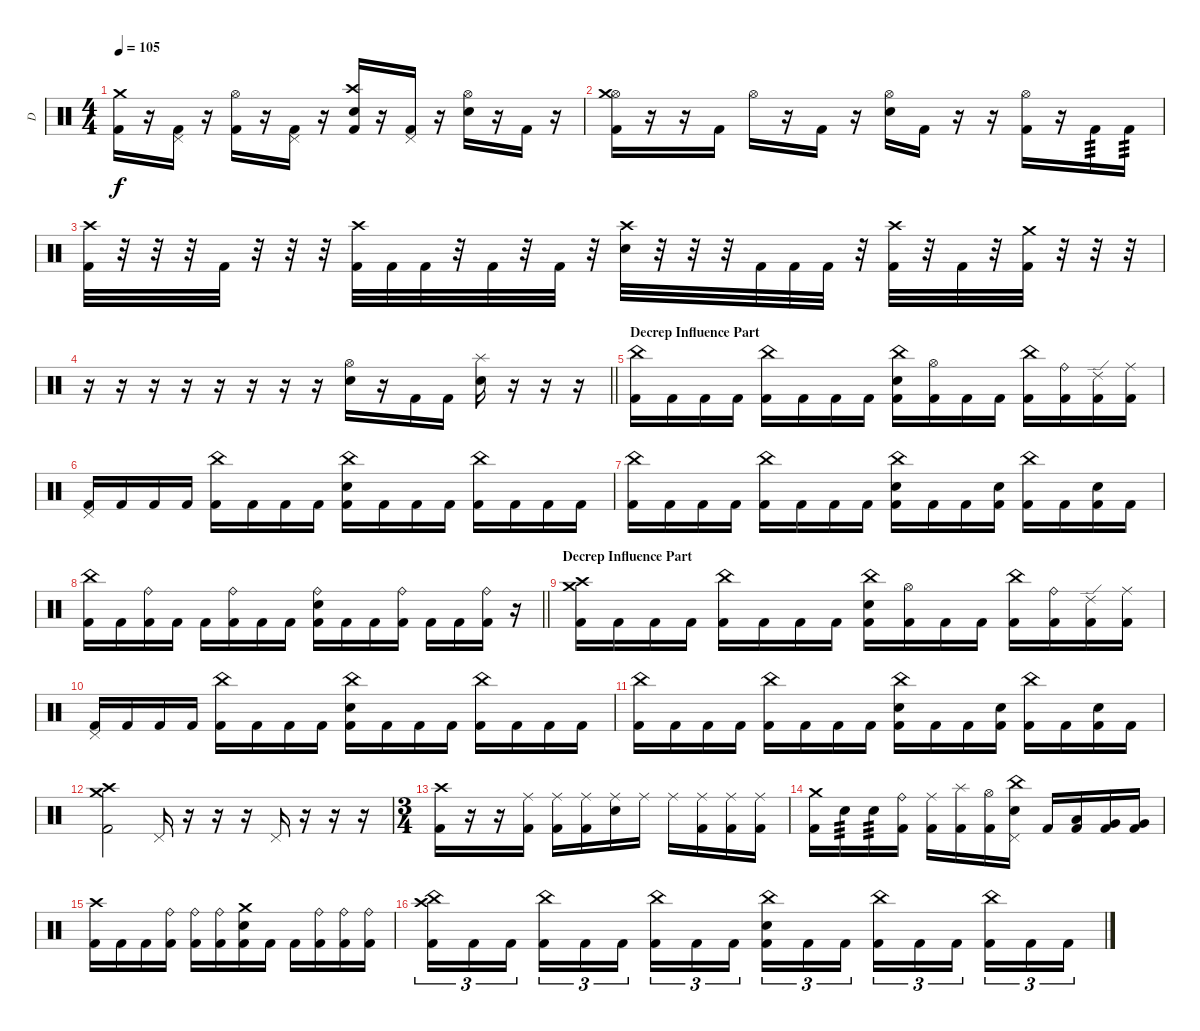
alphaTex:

\track ("D" "D") {instrument percussion}
\staff {score}
\articulation defaults
\ts (4 4)
\tempo 105
\clef neutral
\ks c
("Crash medium (hit)" "Kick (hit) 2").16{dy f} r.16 ("Pedal Hi-Hat (hit)" "Kick (hit) 2").16 r.16 ("Hi-Hat (open)" "Kick (hit) 2").16 r.16 ("Pedal Hi-Hat (hit)" "Kick (hit) 2").16 r.16 ("Crash high (hit)" "Electric Snare (hit)" "Kick (hit) 2").16 r.16 ("Pedal Hi-Hat (hit)" "Kick (hit) 2").16 r.16 ("Hi-Hat (open)" "Electric Snare (hit)").16 r.16 "Kick (hit) 2".16 r.16 |
("Hi-Hat (open)" "Crash medium (hit)" "Kick (hit) 2").16 r.16 r.16 "Kick (hit) 2".16 "Hi-Hat (open)".16 r.16 "Kick (hit) 2".16 r.16 ("Hi-Hat (open)" "Electric Snare (hit)").16 "Kick (hit) 2".16 r.16 r.16 ("Hi-Hat (open)" "Kick (hit) 2").16 r.16 "Kick (hit) 2".16{tp 3} "Kick (hit) 2".16{tp 3} |
("Kick (hit) 2" "Crash high (hit)").32 r.32 r.32 r.32 "Kick (hit) 2".32 r.32 r.32 r.32 ("Kick (hit) 2" "Crash high (hit)").32 "Kick (hit) 2".32 "Kick (hit) 2".32 r.32 "Kick (hit) 2".32 r.32 "Kick (hit) 2".32 r.32 ("Electric Snare (hit)" "Crash high (hit)").32 r.32 r.32 r.32 "Kick (hit) 2".32 "Kick (hit) 2".32 "Kick (hit) 2".32 r.32 ("Kick (hit) 2" "Crash high (hit)").32 r.32 "Kick (hit) 2".32 r.32 ("Crash medium (hit)" "Kick (hit) 2").32 r.32 r.32 r.32 |
\barLineRight lightlight
r.16 r.16 r.16 r.16 r.16 r.16 r.16 r.16 ("Hi-Hat (open)" "Electric Snare (hit)").16 r.16 "Kick (hit) 2".16 "Kick (hit) 2".16 ("Splash (hit)" "Electric Snare (hit)").16 r.16 r.16 r.16 |
\section ("" "Decrep Influence Part")
("China (hit)" "Kick (hit) 2").16 "Kick (hit) 2".16 "Kick (hit) 2".16 "Kick (hit) 2".16 ("China (hit)" "Kick (hit) 2").16 "Kick (hit) 2".16 "Kick (hit) 2".16 "Kick (hit) 2".16 ("China (hit)" "Electric Snare (hit)" "Kick (hit) 2").16 ("Hi-Hat (open)" "Kick (hit) 2").16 "Kick (hit) 2".16 "Kick (hit) 2".16 ("China (hit)" "Kick (hit) 2").16 ("Ride (bell)" "Kick (hit) 2").16 ("Ride (edge) 2" "Kick (hit) 2").16 ("Ride (middle)" "Kick (hit) 2").16 |
("Pedal Hi-Hat (hit)" "Kick (hit) 2").16 "Kick (hit) 2".16 "Kick (hit) 2".16 "Kick (hit) 2".16 ("China (hit)" "Kick (hit) 2").16 "Kick (hit) 2".16 "Kick (hit) 2".16 "Kick (hit) 2".16 ("China (hit)" "Electric Snare (hit)" "Kick (hit) 2").16 "Kick (hit) 2".16 "Kick (hit) 2".16 "Kick (hit) 2".16 ("China (hit)" "Kick (hit) 2").16 "Kick (hit) 2".16 "Kick (hit) 2".16 "Kick (hit) 2".16 |
("China (hit)" "Kick (hit) 2").16 "Kick (hit) 2".16 "Kick (hit) 2".16 "Kick (hit) 2".16 ("China (hit)" "Kick (hit) 2").16 "Kick (hit) 2".16 "Kick (hit) 2".16 "Kick (hit) 2".16 ("China (hit)" "Electric Snare (hit)" "Kick (hit) 2").16 "Kick (hit) 2".16 "Kick (hit) 2".16 ("Electric Snare (hit)" "Kick (hit) 2").16 ("China (hit)" "Kick (hit) 2").16 "Kick (hit) 2".16 ("Electric Snare (hit)" "Kick (hit) 2").16 "Kick (hit) 2".16 |
\barLineRight lightlight
("China (hit)" "Kick (hit) 2").16 "Kick (hit) 2".16 ("Ride (bell)" "Kick (hit) 2").16 "Kick (hit) 2".16 "Kick (hit) 2".16 ("Ride (bell)" "Kick (hit) 2").16 "Kick (hit) 2".16 "Kick (hit) 2".16 ("Ride (bell)" "Electric Snare (hit)" "Kick (hit) 2").16 "Kick (hit) 2".16 "Kick (hit) 2".16 ("Ride (bell)" "Kick (hit) 2").16 "Kick (hit) 2".16 "Kick (hit) 2".16 ("Ride (bell)" "Kick (hit) 2").16 r.16{volume 0} |
\section ("" "Decrep Influence Part")
("Crash high (hit)" "Crash medium (hit)" "Kick (hit) 2").16{volume 16} "Kick (hit) 2".16 "Kick (hit) 2".16 "Kick (hit) 2".16 ("China (hit)" "Kick (hit) 2").16 "Kick (hit) 2".16 "Kick (hit) 2".16 "Kick (hit) 2".16 ("China (hit)" "Electric Snare (hit)" "Kick (hit) 2").16 ("Hi-Hat (open)" "Kick (hit) 2").16 "Kick (hit) 2".16 "Kick (hit) 2".16 ("China (hit)" "Kick (hit) 2").16 ("Ride (bell)" "Kick (hit) 2").16 ("Ride (edge) 2" "Kick (hit) 2").16 ("Ride (middle)" "Kick (hit) 2").16 |
("Pedal Hi-Hat (hit)" "Kick (hit) 2").16 "Kick (hit) 2".16 "Kick (hit) 2".16 "Kick (hit) 2".16 ("China (hit)" "Kick (hit) 2").16 "Kick (hit) 2".16 "Kick (hit) 2".16 "Kick (hit) 2".16 ("China (hit)" "Electric Snare (hit)" "Kick (hit) 2").16 "Kick (hit) 2".16 "Kick (hit) 2".16 "Kick (hit) 2".16 ("China (hit)" "Kick (hit) 2").16 "Kick (hit) 2".16 "Kick (hit) 2".16 "Kick (hit) 2".16 |
("China (hit)" "Kick (hit) 2").16 "Kick (hit) 2".16 "Kick (hit) 2".16 "Kick (hit) 2".16 ("China (hit)" "Kick (hit) 2").16 "Kick (hit) 2".16 "Kick (hit) 2".16 "Kick (hit) 2".16 ("China (hit)" "Electric Snare (hit)" "Kick (hit) 2").16 "Kick (hit) 2".16 "Kick (hit) 2".16 ("Electric Snare (hit)" "Kick (hit) 2").16 ("China (hit)" "Kick (hit) 2").16 "Kick (hit) 2".16 ("Electric Snare (hit)" "Kick (hit) 2").16 "Kick (hit) 2".16 |
("Crash medium (hit)" "Crash high (hit)" "Kick (hit) 2").2 "Pedal Hi-Hat (hit)".16 r.16 r.16 r.16 "Pedal Hi-Hat (hit)".16 r.16 r.16 r.16 |
\ts (3 4)
("Kick (hit) 2" "Crash high (hit)").16 r.16 r.16 ("Ride (middle)" "Kick (hit) 2").16 ("Ride (middle)" "Kick (hit) 2").16 ("Ride (middle)" "Kick (hit) 2").16 ("Ride (middle)" "Electric Snare (hit)").16 "Ride (middle)".16 "Ride (middle)".16 ("Ride (middle)" "Kick (hit) 2").16 ("Ride (middle)" "Kick (hit) 2").16 ("Ride (middle)" "Kick (hit) 2").16 |
("Crash medium (hit)" "Kick (hit) 2").16 "Electric Snare (hit)".16{tp 3} "Electric Snare (hit)".16{tp 3} ("Ride (bell)" "Kick (hit) 2").16 ("Ride (middle)" "Kick (hit) 2").16 ("Splash (hit)" "Kick (hit) 2").16 ("Kick (hit) 2" "Hi-Hat (open)").16 ("Pedal Hi-Hat (hit)" "Electric Snare (hit)" "China (hit)").16 "Kick (hit) 2".16 ("Low Tom (hit)" "Kick (hit) 2").16 ("Very Low Tom (hit)" "Kick (hit) 2").16 ("Very Low Tom (hit)" "Kick (hit) 2").16 |
("Crash high (hit)" "Kick (hit) 2").16 "Kick (hit) 2".16 "Kick (hit) 2".16 ("Ride (bell)" "Kick (hit) 2").16 ("Ride (bell)" "Kick (hit) 2").16 ("Ride (bell)" "Kick (hit) 2").16 ("Crash medium (hit)" "Electric Snare (hit)" "Kick (hit) 2").16 "Kick (hit) 2".16 "Kick (hit) 2".16 ("Ride (bell)" "Kick (hit) 2").16 ("Ride (bell)" "Kick (hit) 2").16 ("Ride (bell)" "Kick (hit) 2").16 |
("China (hit)" "Crash high (hit)" "Kick (hit) 2").16{tu (3 2)} "Kick (hit) 2".16{tu (3 2)} "Kick (hit) 2".16{tu (3 2) beam splitsecondary} ("China (hit)" "Kick (hit) 2").16{tu (3 2)} "Kick (hit) 2".16{tu (3 2)} "Kick (hit) 2".16{tu (3 2)} ("China (hit)" "Kick (hit) 2").16{tu (3 2)} "Kick (hit) 2".16{tu (3 2)} "Kick (hit) 2".16{tu (3 2) beam splitsecondary} ("China (hit)" "Electric Snare (hit)" "Kick (hit) 2").16{tu (3 2)} "Kick (hit) 2".16{tu (3 2)} "Kick (hit) 2".16{tu (3 2)} ("China (hit)" "Kick (hit) 2").16{tu (3 2)} "Kick (hit) 2".16{tu (3 2)} "Kick (hit) 2".16{tu (3 2) beam splitsecondary} ("China (hit)" "Kick (hit) 2").16{tu (3 2)} "Kick (hit) 2".16{tu (3 2)} "Kick (hit) 2".16{tu (3 2)}
